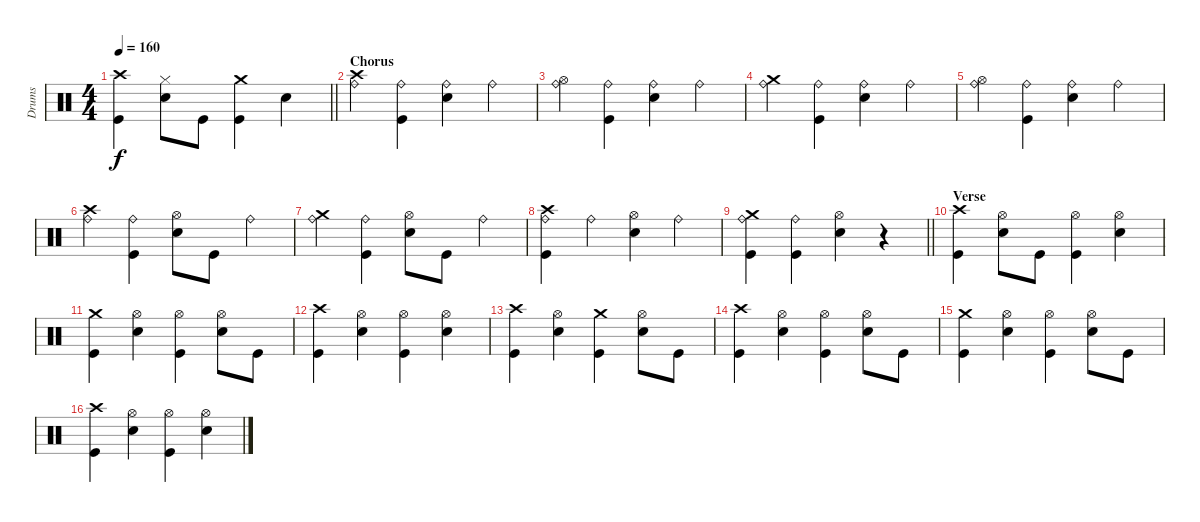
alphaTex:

\track ("Drums" "Drums") {instrument percussion}
\staff {score}
\articulation defaults
\ts (4 4)
\tempo 160
\clef neutral
\barLineRight lightlight
\ks c
("Crash high (hit)" "Kick (hit)").4{dy f} ("Hi-Hat (closed)" "Snare (hit) 2").8 "Kick (hit)".8 ("Crash medium (hit)" "Kick (hit)").4 "Snare (hit) 2".4 |
\section ("" "Chorus")
("Crash high (hit)" "Ride (bell)").4 ("Ride (bell)" "Kick (hit)").4 ("Ride (bell)" "Snare (hit) 2").4 "Ride (bell)".4 |
("Hi-Hat (open)" "Ride (bell)").4 ("Ride (bell)" "Kick (hit)").4 ("Ride (bell)" "Snare (hit) 2").4 "Ride (bell)".4 |
("Crash medium (hit)" "Ride (bell)").4 ("Ride (bell)" "Kick (hit)").4 ("Ride (bell)" "Snare (hit) 2").4 "Ride (bell)".4 |
("Hi-Hat (open)" "Ride (bell)").4 ("Ride (bell)" "Kick (hit)").4 ("Ride (bell)" "Snare (hit) 2").4 "Ride (bell)".4 |
("Crash high (hit)" "Ride (bell)").4 ("Ride (bell)" "Kick (hit)").4 ("Hi-Hat (open)" "Snare (hit) 2").8 "Kick (hit)".8 "Ride (bell)".4 |
("Crash medium (hit)" "Ride (bell)").4 ("Ride (bell)" "Kick (hit)").4 ("Hi-Hat (open)" "Snare (hit) 2").8 "Kick (hit)".8 "Ride (bell)".4 |
("Crash high (hit)" "Ride (bell)" "Kick (hit)").4 "Ride (bell)".4 ("Hi-Hat (open)" "Snare (hit) 2").4 "Ride (bell)".4 |
\barLineRight lightlight
("Crash medium (hit)" "Ride (bell)" "Kick (hit)").4 ("Ride (bell)" "Kick (hit)").4 ("Hi-Hat (open)" "Snare (hit) 2").4 r.4 |
\section ("" "Verse")
("Crash high (hit)" "Kick (hit)").4 ("Hi-Hat (open)" "Snare (hit) 2").8 "Kick (hit)".8 ("Hi-Hat (open)" "Kick (hit)").4 ("Hi-Hat (open)" "Snare (hit) 2").4 |
("Crash medium (hit)" "Kick (hit)").4 ("Hi-Hat (open)" "Snare (hit) 2").4 ("Hi-Hat (open)" "Kick (hit)").4 ("Hi-Hat (open)" "Snare (hit) 2").8 "Kick (hit)".8 |
("Crash high (hit)" "Kick (hit)").4 ("Hi-Hat (open)" "Snare (hit) 2").4 ("Hi-Hat (open)" "Kick (hit)").4 ("Hi-Hat (open)" "Snare (hit) 2").4 |
("Crash high (hit)" "Kick (hit)").4 ("Hi-Hat (open)" "Snare (hit) 2").4 ("Crash medium (hit)" "Kick (hit)").4 ("Hi-Hat (open)" "Snare (hit) 2").8 "Kick (hit)".8 |
("Crash high (hit)" "Kick (hit)").4 ("Hi-Hat (open)" "Snare (hit) 2").4 ("Hi-Hat (open)" "Kick (hit)").4 ("Hi-Hat (open)" "Snare (hit) 2").8 "Kick (hit)".8 |
("Crash medium (hit)" "Kick (hit)").4 ("Hi-Hat (open)" "Snare (hit) 2").4 ("Hi-Hat (open)" "Kick (hit)").4 ("Hi-Hat (open)" "Snare (hit) 2").8 "Kick (hit)".8 |
("Crash high (hit)" "Kick (hit)").4 ("Hi-Hat (open)" "Snare (hit) 2").4 ("Hi-Hat (open)" "Kick (hit)").4 ("Hi-Hat (open)" "Snare (hit) 2").4
